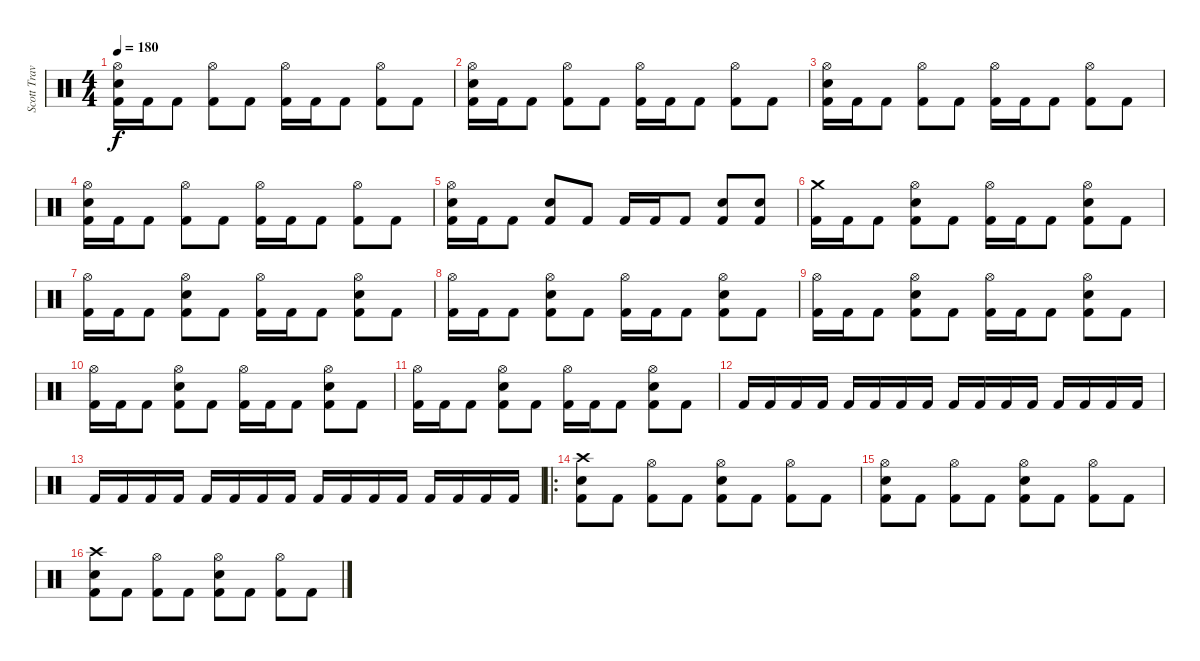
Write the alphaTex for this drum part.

\track ("Scott Travis" "Scott Trav") {instrument percussion}
\staff {score}
\articulation defaults
\ts (4 4)
\tempo 180
\clef neutral
\ks c
("Hi-Hat (open)" "Snare (hit) 2" "Kick (hit) 2").16{dy f} "Kick (hit) 2".16 "Kick (hit) 2".8 ("Hi-Hat (open)" "Kick (hit) 2").8 "Kick (hit) 2".8 ("Hi-Hat (open)" "Kick (hit) 2").16 "Kick (hit) 2".16 "Kick (hit) 2".8 ("Hi-Hat (open)" "Kick (hit) 2").8 "Kick (hit) 2".8 |
("Hi-Hat (open)" "Snare (hit) 2" "Kick (hit) 2").16 "Kick (hit) 2".16 "Kick (hit) 2".8 ("Hi-Hat (open)" "Kick (hit) 2").8 "Kick (hit) 2".8 ("Hi-Hat (open)" "Kick (hit) 2").16 "Kick (hit) 2".16 "Kick (hit) 2".8 ("Hi-Hat (open)" "Kick (hit) 2").8 "Kick (hit) 2".8 |
("Hi-Hat (open)" "Snare (hit) 2" "Kick (hit) 2").16 "Kick (hit) 2".16 "Kick (hit) 2".8 ("Hi-Hat (open)" "Kick (hit) 2").8 "Kick (hit) 2".8 ("Hi-Hat (open)" "Kick (hit) 2").16 "Kick (hit) 2".16 "Kick (hit) 2".8 ("Hi-Hat (open)" "Kick (hit) 2").8 "Kick (hit) 2".8 |
("Hi-Hat (open)" "Snare (hit) 2" "Kick (hit) 2").16 "Kick (hit) 2".16 "Kick (hit) 2".8 ("Hi-Hat (open)" "Kick (hit) 2").8 "Kick (hit) 2".8 ("Hi-Hat (open)" "Kick (hit) 2").16 "Kick (hit) 2".16 "Kick (hit) 2".8 ("Hi-Hat (open)" "Kick (hit) 2").8 "Kick (hit) 2".8 |
("Hi-Hat (open)" "Snare (hit) 2" "Kick (hit) 2").16 "Kick (hit) 2".16 "Kick (hit) 2".8 ("Snare (hit) 2" "Kick (hit) 2").8 "Kick (hit) 2".8 "Kick (hit) 2".16 "Kick (hit) 2".16 "Kick (hit) 2".8 ("Snare (hit) 2" "Kick (hit) 2").8 ("Snare (hit) 2" "Kick (hit) 2").8 |
("Crash medium (hit)" "Kick (hit) 2").16 "Kick (hit) 2".16 "Kick (hit) 2".8 ("Hi-Hat (open)" "Snare (hit) 2" "Kick (hit) 2").8 "Kick (hit) 2".8 ("Hi-Hat (open)" "Kick (hit) 2").16 "Kick (hit) 2".16 "Kick (hit) 2".8 ("Hi-Hat (open)" "Snare (hit) 2" "Kick (hit) 2").8 "Kick (hit) 2".8 |
("Hi-Hat (open)" "Kick (hit) 2").16 "Kick (hit) 2".16 "Kick (hit) 2".8 ("Hi-Hat (open)" "Snare (hit) 2" "Kick (hit) 2").8 "Kick (hit) 2".8 ("Hi-Hat (open)" "Kick (hit) 2").16 "Kick (hit) 2".16 "Kick (hit) 2".8 ("Hi-Hat (open)" "Snare (hit) 2" "Kick (hit) 2").8 "Kick (hit) 2".8 |
("Hi-Hat (open)" "Kick (hit) 2").16 "Kick (hit) 2".16 "Kick (hit) 2".8 ("Hi-Hat (open)" "Snare (hit) 2" "Kick (hit) 2").8 "Kick (hit) 2".8 ("Hi-Hat (open)" "Kick (hit) 2").16 "Kick (hit) 2".16 "Kick (hit) 2".8 ("Hi-Hat (open)" "Snare (hit) 2" "Kick (hit) 2").8 "Kick (hit) 2".8 |
("Hi-Hat (open)" "Kick (hit) 2").16 "Kick (hit) 2".16 "Kick (hit) 2".8 ("Hi-Hat (open)" "Snare (hit) 2" "Kick (hit) 2").8 "Kick (hit) 2".8 ("Hi-Hat (open)" "Kick (hit) 2").16 "Kick (hit) 2".16 "Kick (hit) 2".8 ("Hi-Hat (open)" "Snare (hit) 2" "Kick (hit) 2").8 "Kick (hit) 2".8 |
("Hi-Hat (open)" "Kick (hit) 2").16 "Kick (hit) 2".16 "Kick (hit) 2".8 ("Hi-Hat (open)" "Snare (hit) 2" "Kick (hit) 2").8 "Kick (hit) 2".8 ("Hi-Hat (open)" "Kick (hit) 2").16 "Kick (hit) 2".16 "Kick (hit) 2".8 ("Hi-Hat (open)" "Snare (hit) 2" "Kick (hit) 2").8 "Kick (hit) 2".8 |
("Hi-Hat (open)" "Kick (hit) 2").16 "Kick (hit) 2".16 "Kick (hit) 2".8 ("Hi-Hat (open)" "Snare (hit) 2" "Kick (hit) 2").8 "Kick (hit) 2".8 ("Hi-Hat (open)" "Kick (hit) 2").16 "Kick (hit) 2".16 "Kick (hit) 2".8 ("Hi-Hat (open)" "Snare (hit) 2" "Kick (hit) 2").8 "Kick (hit) 2".8 |
"Kick (hit) 2".16 "Kick (hit) 2".16 "Kick (hit) 2".16 "Kick (hit) 2".16 "Kick (hit) 2".16 "Kick (hit) 2".16 "Kick (hit) 2".16 "Kick (hit) 2".16 "Kick (hit) 2".16 "Kick (hit) 2".16 "Kick (hit) 2".16 "Kick (hit) 2".16 "Kick (hit) 2".16 "Kick (hit) 2".16 "Kick (hit) 2".16 "Kick (hit) 2".16 |
"Kick (hit) 2".16 "Kick (hit) 2".16 "Kick (hit) 2".16 "Kick (hit) 2".16 "Kick (hit) 2".16 "Kick (hit) 2".16 "Kick (hit) 2".16 "Kick (hit) 2".16 "Kick (hit) 2".16 "Kick (hit) 2".16 "Kick (hit) 2".16 "Kick (hit) 2".16 "Kick (hit) 2".16 "Kick (hit) 2".16 "Kick (hit) 2".16 "Kick (hit) 2".16 |
\ro
("Crash high (hit)" "Snare (hit) 2" "Kick (hit) 2").8 "Kick (hit) 2".8 ("Hi-Hat (open)" "Kick (hit) 2").8 "Kick (hit) 2".8 ("Hi-Hat (open)" "Snare (hit) 2" "Kick (hit) 2").8 "Kick (hit) 2".8 ("Hi-Hat (open)" "Kick (hit) 2").8 "Kick (hit) 2".8 |
("Hi-Hat (open)" "Snare (hit) 2" "Kick (hit) 2").8 "Kick (hit) 2".8 ("Hi-Hat (open)" "Kick (hit) 2").8 "Kick (hit) 2".8 ("Hi-Hat (open)" "Snare (hit) 2" "Kick (hit) 2").8 "Kick (hit) 2".8 ("Hi-Hat (open)" "Kick (hit) 2").8 "Kick (hit) 2".8 |
("Crash high (hit)" "Snare (hit) 2" "Kick (hit) 2").8 "Kick (hit) 2".8 ("Hi-Hat (open)" "Kick (hit) 2").8 "Kick (hit) 2".8 ("Hi-Hat (open)" "Snare (hit) 2" "Kick (hit) 2").8 "Kick (hit) 2".8 ("Hi-Hat (open)" "Kick (hit) 2").8 "Kick (hit) 2".8
